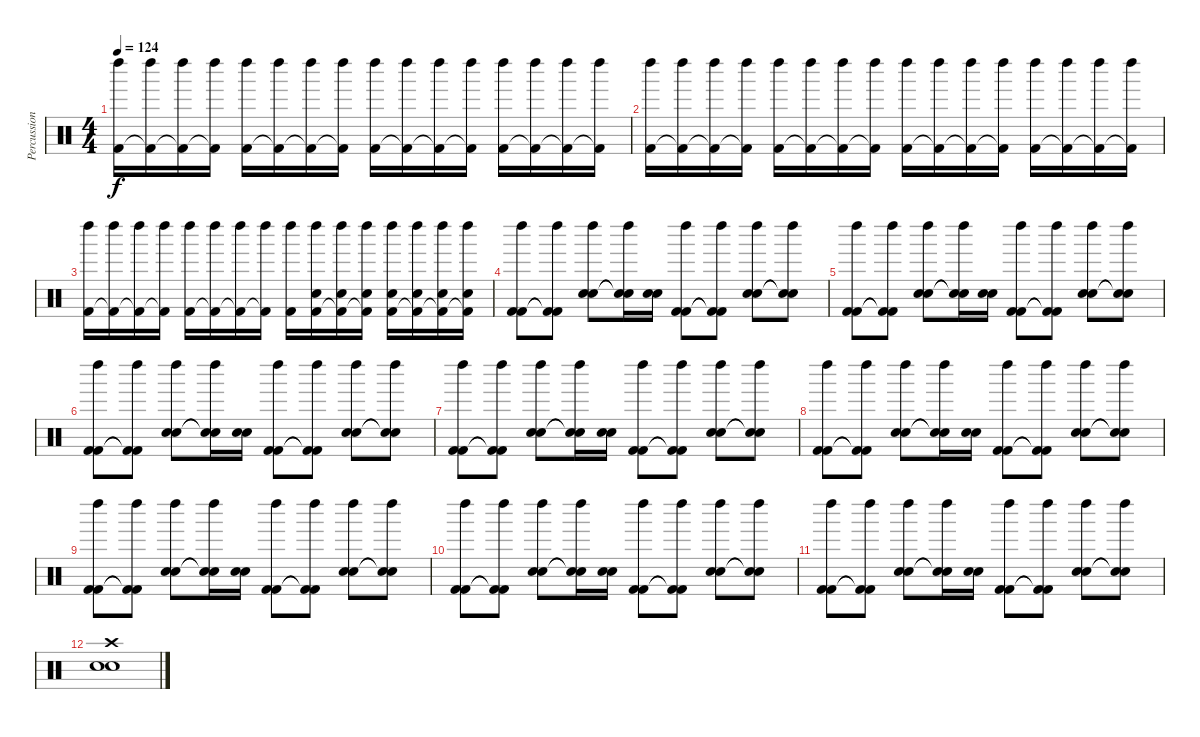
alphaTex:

\track ("Percussions" "Percussion") {instrument percussion}
\staff {score}
\articulation defaults
\ts (4 4)
\tempo 124
\clef neutral
\ks c
("Left Maraca (hit)" "Kick (hit) 2").16{dy f} ("Left Maraca (hit)" "Kick (hit) 2"{t}).16 ("Left Maraca (hit)" "Kick (hit) 2"{t}).16 ("Left Maraca (hit)" "Kick (hit) 2"{t}).16 ("Left Maraca (hit)" "Kick (hit) 2").16 ("Left Maraca (hit)" "Kick (hit) 2"{t}).16 ("Left Maraca (hit)" "Kick (hit) 2"{t}).16 ("Left Maraca (hit)" "Kick (hit) 2"{t}).16 ("Left Maraca (hit)" "Kick (hit) 2").16 ("Left Maraca (hit)" "Kick (hit) 2"{t}).16 ("Left Maraca (hit)" "Kick (hit) 2"{t}).16 ("Left Maraca (hit)" "Kick (hit) 2"{t}).16 ("Left Maraca (hit)" "Kick (hit) 2").16 ("Left Maraca (hit)" "Kick (hit) 2"{t}).16 ("Left Maraca (hit)" "Kick (hit) 2"{t}).16 ("Left Maraca (hit)" "Kick (hit) 2"{t}).16 |
("Left Maraca (hit)" "Kick (hit) 2").16 ("Left Maraca (hit)" "Kick (hit) 2"{t}).16 ("Left Maraca (hit)" "Kick (hit) 2"{t}).16 ("Left Maraca (hit)" "Kick (hit) 2"{t}).16 ("Left Maraca (hit)" "Kick (hit) 2").16 ("Left Maraca (hit)" "Kick (hit) 2"{t}).16 ("Left Maraca (hit)" "Kick (hit) 2"{t}).16 ("Left Maraca (hit)" "Kick (hit) 2"{t}).16 ("Left Maraca (hit)" "Kick (hit) 2").16 ("Left Maraca (hit)" "Kick (hit) 2"{t}).16 ("Left Maraca (hit)" "Kick (hit) 2"{t}).16 ("Left Maraca (hit)" "Kick (hit) 2"{t}).16 ("Left Maraca (hit)" "Kick (hit) 2").16 ("Left Maraca (hit)" "Kick (hit) 2"{t}).16 ("Left Maraca (hit)" "Kick (hit) 2"{t}).16 ("Left Maraca (hit)" "Kick (hit) 2"{t}).16 |
("Left Maraca (hit)" "Kick (hit) 2").16 ("Left Maraca (hit)" "Kick (hit) 2"{t}).16 ("Left Maraca (hit)" "Kick (hit) 2"{t}).16 ("Left Maraca (hit)" "Kick (hit) 2"{t}).16 ("Left Maraca (hit)" "Kick (hit) 2").16 ("Left Maraca (hit)" "Kick (hit) 2"{t}).16 ("Left Maraca (hit)" "Kick (hit) 2"{t}).16 ("Left Maraca (hit)" "Kick (hit) 2"{t}).16 ("Left Maraca (hit)" "Kick (hit) 2").16 ("Left Maraca (hit)" "Snare (hit) 2" "Kick (hit) 2").16 ("Left Maraca (hit)" "Snare (hit) 2" "Kick (hit) 2"{t}).16 ("Left Maraca (hit)" "Snare (hit) 2" "Kick (hit) 2"{t}).16 ("Left Maraca (hit)" "Snare (hit) 2" "Kick (hit) 2").16 ("Left Maraca (hit)" "Snare (hit) 2" "Kick (hit) 2"{t}).16 ("Left Maraca (hit)" "Snare (hit) 2" "Kick (hit) 2"{t}).16 ("Left Maraca (hit)" "Snare (hit) 2" "Kick (hit) 2"{t}).16 |
("Left Maraca (hit)" "Kick (hit) 2" "Kick (hit) 2").8 ("Left Maraca (hit)" "Kick (hit) 2"{t} "Kick (hit) 2"{t}).8 ("Left Maraca (hit)" "Snare (hit) 2" "Snare (hit) 2").8 ("Left Maraca (hit)" "Snare (hit) 2"{t} "Snare (hit) 2"{t}).16 ("Snare (hit) 2" "Snare (hit) 2").16 ("Left Maraca (hit)" "Kick (hit) 2" "Kick (hit) 2").8 ("Left Maraca (hit)" "Kick (hit) 2"{t} "Kick (hit) 2"{t}).8 ("Left Maraca (hit)" "Snare (hit) 2" "Snare (hit) 2").8 ("Left Maraca (hit)" "Snare (hit) 2"{t} "Snare (hit) 2"{t}).8 |
("Left Maraca (hit)" "Kick (hit) 2" "Kick (hit) 2").8 ("Left Maraca (hit)" "Kick (hit) 2"{t} "Kick (hit) 2"{t}).8 ("Left Maraca (hit)" "Snare (hit) 2" "Snare (hit) 2").8 ("Left Maraca (hit)" "Snare (hit) 2"{t} "Snare (hit) 2"{t}).16 ("Snare (hit) 2" "Snare (hit) 2").16 ("Left Maraca (hit)" "Kick (hit) 2" "Kick (hit) 2").8 ("Left Maraca (hit)" "Kick (hit) 2"{t} "Kick (hit) 2"{t}).8 ("Left Maraca (hit)" "Snare (hit) 2" "Snare (hit) 2").8 ("Left Maraca (hit)" "Snare (hit) 2"{t} "Snare (hit) 2"{t}).8 |
("Left Maraca (hit)" "Kick (hit) 2" "Kick (hit) 2").8 ("Left Maraca (hit)" "Kick (hit) 2"{t} "Kick (hit) 2"{t}).8 ("Left Maraca (hit)" "Snare (hit) 2" "Snare (hit) 2").8 ("Left Maraca (hit)" "Snare (hit) 2"{t} "Snare (hit) 2"{t}).16 ("Snare (hit) 2" "Snare (hit) 2").16 ("Left Maraca (hit)" "Kick (hit) 2" "Kick (hit) 2").8 ("Left Maraca (hit)" "Kick (hit) 2"{t} "Kick (hit) 2"{t}).8 ("Left Maraca (hit)" "Snare (hit) 2" "Snare (hit) 2").8 ("Left Maraca (hit)" "Snare (hit) 2"{t} "Snare (hit) 2"{t}).8 |
("Left Maraca (hit)" "Kick (hit) 2" "Kick (hit) 2").8 ("Left Maraca (hit)" "Kick (hit) 2"{t} "Kick (hit) 2"{t}).8 ("Left Maraca (hit)" "Snare (hit) 2" "Snare (hit) 2").8 ("Left Maraca (hit)" "Snare (hit) 2"{t} "Snare (hit) 2"{t}).16 ("Snare (hit) 2" "Snare (hit) 2").16 ("Left Maraca (hit)" "Kick (hit) 2" "Kick (hit) 2").8 ("Left Maraca (hit)" "Kick (hit) 2"{t} "Kick (hit) 2"{t}).8 ("Left Maraca (hit)" "Snare (hit) 2" "Snare (hit) 2").8 ("Left Maraca (hit)" "Snare (hit) 2"{t} "Snare (hit) 2"{t}).8 |
("Left Maraca (hit)" "Kick (hit) 2" "Kick (hit) 2").8 ("Left Maraca (hit)" "Kick (hit) 2"{t} "Kick (hit) 2"{t}).8 ("Left Maraca (hit)" "Snare (hit) 2" "Snare (hit) 2").8 ("Left Maraca (hit)" "Snare (hit) 2"{t} "Snare (hit) 2"{t}).16 ("Snare (hit) 2" "Snare (hit) 2").16 ("Left Maraca (hit)" "Kick (hit) 2" "Kick (hit) 2").8 ("Left Maraca (hit)" "Kick (hit) 2"{t} "Kick (hit) 2"{t}).8 ("Left Maraca (hit)" "Snare (hit) 2" "Snare (hit) 2").8 ("Left Maraca (hit)" "Snare (hit) 2"{t} "Snare (hit) 2"{t}).8 |
("Left Maraca (hit)" "Kick (hit) 2" "Kick (hit) 2").8 ("Left Maraca (hit)" "Kick (hit) 2"{t} "Kick (hit) 2"{t}).8 ("Left Maraca (hit)" "Snare (hit) 2" "Snare (hit) 2").8 ("Left Maraca (hit)" "Snare (hit) 2"{t} "Snare (hit) 2"{t}).16 ("Snare (hit) 2" "Snare (hit) 2").16 ("Left Maraca (hit)" "Kick (hit) 2" "Kick (hit) 2").8 ("Left Maraca (hit)" "Kick (hit) 2"{t} "Kick (hit) 2"{t}).8 ("Left Maraca (hit)" "Snare (hit) 2" "Snare (hit) 2").8 ("Left Maraca (hit)" "Snare (hit) 2"{t} "Snare (hit) 2"{t}).8 |
("Left Maraca (hit)" "Kick (hit) 2" "Kick (hit) 2").8 ("Left Maraca (hit)" "Kick (hit) 2"{t} "Kick (hit) 2"{t}).8 ("Left Maraca (hit)" "Snare (hit) 2" "Snare (hit) 2").8 ("Left Maraca (hit)" "Snare (hit) 2"{t} "Snare (hit) 2"{t}).16 ("Snare (hit) 2" "Snare (hit) 2").16 ("Left Maraca (hit)" "Kick (hit) 2" "Kick (hit) 2").8 ("Left Maraca (hit)" "Kick (hit) 2"{t} "Kick (hit) 2"{t}).8 ("Left Maraca (hit)" "Snare (hit) 2" "Snare (hit) 2").8 ("Left Maraca (hit)" "Snare (hit) 2"{t} "Snare (hit) 2"{t}).8 |
("Left Maraca (hit)" "Kick (hit) 2" "Kick (hit) 2").8 ("Left Maraca (hit)" "Kick (hit) 2"{t} "Kick (hit) 2"{t}).8 ("Left Maraca (hit)" "Snare (hit) 2" "Snare (hit) 2").8 ("Left Maraca (hit)" "Snare (hit) 2"{t} "Snare (hit) 2"{t}).16 ("Snare (hit) 2" "Snare (hit) 2").16 ("Left Maraca (hit)" "Kick (hit) 2" "Kick (hit) 2").8 ("Left Maraca (hit)" "Kick (hit) 2"{t} "Kick (hit) 2"{t}).8 ("Left Maraca (hit)" "Snare (hit) 2" "Snare (hit) 2").8 ("Left Maraca (hit)" "Snare (hit) 2"{t} "Snare (hit) 2"{t}).8 |
("Snare (hit) 2" "Snare (hit) 2" "Crash high (hit)").1
